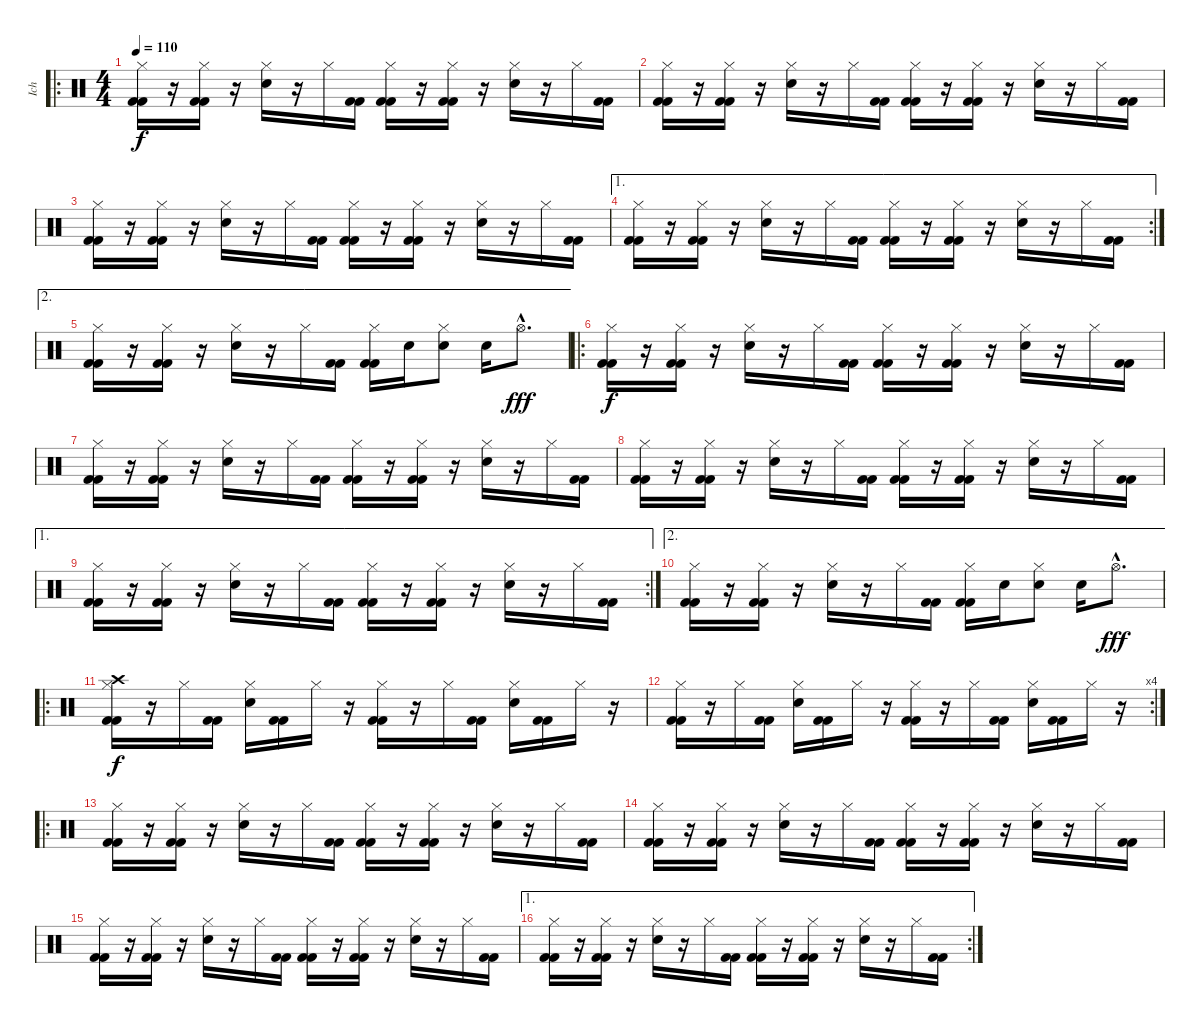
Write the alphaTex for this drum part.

\track ("Ich" "Ich") {instrument percussion}
\staff {score}
\articulation defaults
\ro
\ts (4 4)
\tempo 110
\clef neutral
\ks c
("Hi-Hat (closed)" "Kick (hit) 2" "Kick (hit) 2").16{dy f} r.16 ("Hi-Hat (closed)" "Kick (hit) 2" "Kick (hit) 2").16 r.16 ("Hi-Hat (closed)" "Snare (hit) 2").16 r.16 "Hi-Hat (closed)".16 ("Kick (hit) 2" "Kick (hit) 2").16 ("Hi-Hat (closed)" "Kick (hit) 2" "Kick (hit) 2").16 r.16 ("Hi-Hat (closed)" "Kick (hit) 2" "Kick (hit) 2").16 r.16 ("Hi-Hat (closed)" "Snare (hit) 2").16 r.16 "Hi-Hat (closed)".16 ("Kick (hit) 2" "Kick (hit) 2").16 |
("Hi-Hat (closed)" "Kick (hit) 2" "Kick (hit) 2").16 r.16 ("Hi-Hat (closed)" "Kick (hit) 2" "Kick (hit) 2").16 r.16 ("Hi-Hat (closed)" "Snare (hit) 2").16 r.16 "Hi-Hat (closed)".16 ("Kick (hit) 2" "Kick (hit) 2").16 ("Hi-Hat (closed)" "Kick (hit) 2" "Kick (hit) 2").16 r.16 ("Hi-Hat (closed)" "Kick (hit) 2" "Kick (hit) 2").16 r.16 ("Hi-Hat (closed)" "Snare (hit) 2").16 r.16 "Hi-Hat (closed)".16 ("Kick (hit) 2" "Kick (hit) 2").16 |
("Hi-Hat (closed)" "Kick (hit) 2" "Kick (hit) 2").16 r.16 ("Hi-Hat (closed)" "Kick (hit) 2" "Kick (hit) 2").16 r.16 ("Hi-Hat (closed)" "Snare (hit) 2").16 r.16 "Hi-Hat (closed)".16 ("Kick (hit) 2" "Kick (hit) 2").16 ("Hi-Hat (closed)" "Kick (hit) 2" "Kick (hit) 2").16 r.16 ("Hi-Hat (closed)" "Kick (hit) 2" "Kick (hit) 2").16 r.16 ("Hi-Hat (closed)" "Snare (hit) 2").16 r.16 "Hi-Hat (closed)".16 ("Kick (hit) 2" "Kick (hit) 2").16 |
\ae 1
\rc 2
("Hi-Hat (closed)" "Kick (hit) 2" "Kick (hit) 2").16 r.16 ("Hi-Hat (closed)" "Kick (hit) 2" "Kick (hit) 2").16 r.16 ("Hi-Hat (closed)" "Snare (hit) 2").16 r.16 "Hi-Hat (closed)".16 ("Kick (hit) 2" "Kick (hit) 2").16 ("Hi-Hat (closed)" "Kick (hit) 2" "Kick (hit) 2").16 r.16 ("Hi-Hat (closed)" "Kick (hit) 2" "Kick (hit) 2").16 r.16 ("Hi-Hat (closed)" "Snare (hit) 2").16 r.16 "Hi-Hat (closed)".16 ("Kick (hit) 2" "Kick (hit) 2").16 |
\ae 2
("Hi-Hat (closed)" "Kick (hit) 2" "Kick (hit) 2").16 r.16 ("Hi-Hat (closed)" "Kick (hit) 2" "Kick (hit) 2").16 r.16 ("Hi-Hat (closed)" "Snare (hit) 2").16 r.16 "Hi-Hat (closed)".16 ("Kick (hit) 2" "Kick (hit) 2").16 ("Hi-Hat (closed)" "Kick (hit) 2" "Kick (hit) 2").16 "Snare (hit) 2".16 ("Hi-Hat (closed)" "Snare (hit) 2").8 "Snare (hit) 2".16 "Hi-Hat (open)"{hac}.8{d dy fff} |
\ro
("Hi-Hat (closed)" "Kick (hit) 2" "Kick (hit) 2").16{dy f} r.16 ("Hi-Hat (closed)" "Kick (hit) 2" "Kick (hit) 2").16 r.16 ("Hi-Hat (closed)" "Snare (hit) 2").16 r.16 "Hi-Hat (closed)".16 ("Kick (hit) 2" "Kick (hit) 2").16 ("Hi-Hat (closed)" "Kick (hit) 2" "Kick (hit) 2").16 r.16 ("Hi-Hat (closed)" "Kick (hit) 2" "Kick (hit) 2").16 r.16 ("Hi-Hat (closed)" "Snare (hit) 2").16 r.16 "Hi-Hat (closed)".16 ("Kick (hit) 2" "Kick (hit) 2").16 |
("Hi-Hat (closed)" "Kick (hit) 2" "Kick (hit) 2").16 r.16 ("Hi-Hat (closed)" "Kick (hit) 2" "Kick (hit) 2").16 r.16 ("Hi-Hat (closed)" "Snare (hit) 2").16 r.16 "Hi-Hat (closed)".16 ("Kick (hit) 2" "Kick (hit) 2").16 ("Hi-Hat (closed)" "Kick (hit) 2" "Kick (hit) 2").16 r.16 ("Hi-Hat (closed)" "Kick (hit) 2" "Kick (hit) 2").16 r.16 ("Hi-Hat (closed)" "Snare (hit) 2").16 r.16 "Hi-Hat (closed)".16 ("Kick (hit) 2" "Kick (hit) 2").16 |
("Hi-Hat (closed)" "Kick (hit) 2" "Kick (hit) 2").16 r.16 ("Hi-Hat (closed)" "Kick (hit) 2" "Kick (hit) 2").16 r.16 ("Hi-Hat (closed)" "Snare (hit) 2").16 r.16 "Hi-Hat (closed)".16 ("Kick (hit) 2" "Kick (hit) 2").16 ("Hi-Hat (closed)" "Kick (hit) 2" "Kick (hit) 2").16 r.16 ("Hi-Hat (closed)" "Kick (hit) 2" "Kick (hit) 2").16 r.16 ("Hi-Hat (closed)" "Snare (hit) 2").16 r.16 "Hi-Hat (closed)".16 ("Kick (hit) 2" "Kick (hit) 2").16 |
\ae 1
\rc 2
("Hi-Hat (closed)" "Kick (hit) 2" "Kick (hit) 2").16 r.16 ("Hi-Hat (closed)" "Kick (hit) 2" "Kick (hit) 2").16 r.16 ("Hi-Hat (closed)" "Snare (hit) 2").16 r.16 "Hi-Hat (closed)".16 ("Kick (hit) 2" "Kick (hit) 2").16 ("Hi-Hat (closed)" "Kick (hit) 2" "Kick (hit) 2").16 r.16 ("Hi-Hat (closed)" "Kick (hit) 2" "Kick (hit) 2").16 r.16 ("Hi-Hat (closed)" "Snare (hit) 2").16 r.16 "Hi-Hat (closed)".16 ("Kick (hit) 2" "Kick (hit) 2").16 |
\ae 2
("Hi-Hat (closed)" "Kick (hit) 2" "Kick (hit) 2").16 r.16 ("Hi-Hat (closed)" "Kick (hit) 2" "Kick (hit) 2").16 r.16 ("Hi-Hat (closed)" "Snare (hit) 2").16 r.16 "Hi-Hat (closed)".16 ("Kick (hit) 2" "Kick (hit) 2").16 ("Hi-Hat (closed)" "Kick (hit) 2" "Kick (hit) 2").16 "Snare (hit) 2".16 ("Hi-Hat (closed)" "Snare (hit) 2").8 "Snare (hit) 2".16 "Hi-Hat (open)"{hac}.8{d dy fff} |
\ro
("Hi-Hat (closed)" "Crash high (hit)" "Kick (hit) 2" "Kick (hit) 2").16{dy f} r.16 "Hi-Hat (closed)".16 ("Kick (hit) 2" "Kick (hit) 2").16 ("Hi-Hat (closed)" "Snare (hit) 2").16 ("Kick (hit) 2" "Kick (hit) 2").16 "Hi-Hat (closed)".16 r.16 ("Hi-Hat (closed)" "Kick (hit) 2" "Kick (hit) 2").16 r.16 "Hi-Hat (closed)".16 ("Kick (hit) 2" "Kick (hit) 2").16 ("Hi-Hat (closed)" "Snare (hit) 2").16 ("Kick (hit) 2" "Kick (hit) 2").16 "Hi-Hat (closed)".16 r.16 |
\rc 4
("Hi-Hat (closed)" "Kick (hit) 2" "Kick (hit) 2").16 r.16 "Hi-Hat (closed)".16 ("Kick (hit) 2" "Kick (hit) 2").16 ("Hi-Hat (closed)" "Snare (hit) 2").16 ("Kick (hit) 2" "Kick (hit) 2").16 "Hi-Hat (closed)".16 r.16 ("Hi-Hat (closed)" "Kick (hit) 2" "Kick (hit) 2").16 r.16 "Hi-Hat (closed)".16 ("Kick (hit) 2" "Kick (hit) 2").16 ("Hi-Hat (closed)" "Snare (hit) 2").16 ("Kick (hit) 2" "Kick (hit) 2").16 "Hi-Hat (closed)".16 r.16 |
\ro
("Hi-Hat (closed)" "Kick (hit) 2" "Kick (hit) 2").16 r.16 ("Hi-Hat (closed)" "Kick (hit) 2" "Kick (hit) 2").16 r.16 ("Hi-Hat (closed)" "Snare (hit) 2").16 r.16 "Hi-Hat (closed)".16 ("Kick (hit) 2" "Kick (hit) 2").16 ("Hi-Hat (closed)" "Kick (hit) 2" "Kick (hit) 2").16 r.16 ("Hi-Hat (closed)" "Kick (hit) 2" "Kick (hit) 2").16 r.16 ("Hi-Hat (closed)" "Snare (hit) 2").16 r.16 "Hi-Hat (closed)".16 ("Kick (hit) 2" "Kick (hit) 2").16 |
("Hi-Hat (closed)" "Kick (hit) 2" "Kick (hit) 2").16 r.16 ("Hi-Hat (closed)" "Kick (hit) 2" "Kick (hit) 2").16 r.16 ("Hi-Hat (closed)" "Snare (hit) 2").16 r.16 "Hi-Hat (closed)".16 ("Kick (hit) 2" "Kick (hit) 2").16 ("Hi-Hat (closed)" "Kick (hit) 2" "Kick (hit) 2").16 r.16 ("Hi-Hat (closed)" "Kick (hit) 2" "Kick (hit) 2").16 r.16 ("Hi-Hat (closed)" "Snare (hit) 2").16 r.16 "Hi-Hat (closed)".16 ("Kick (hit) 2" "Kick (hit) 2").16 |
("Hi-Hat (closed)" "Kick (hit) 2" "Kick (hit) 2").16 r.16 ("Hi-Hat (closed)" "Kick (hit) 2" "Kick (hit) 2").16 r.16 ("Hi-Hat (closed)" "Snare (hit) 2").16 r.16 "Hi-Hat (closed)".16 ("Kick (hit) 2" "Kick (hit) 2").16 ("Hi-Hat (closed)" "Kick (hit) 2" "Kick (hit) 2").16 r.16 ("Hi-Hat (closed)" "Kick (hit) 2" "Kick (hit) 2").16 r.16 ("Hi-Hat (closed)" "Snare (hit) 2").16 r.16 "Hi-Hat (closed)".16 ("Kick (hit) 2" "Kick (hit) 2").16 |
\ae 1
\rc 2
("Hi-Hat (closed)" "Kick (hit) 2" "Kick (hit) 2").16 r.16 ("Hi-Hat (closed)" "Kick (hit) 2" "Kick (hit) 2").16 r.16 ("Hi-Hat (closed)" "Snare (hit) 2").16 r.16 "Hi-Hat (closed)".16 ("Kick (hit) 2" "Kick (hit) 2").16 ("Hi-Hat (closed)" "Kick (hit) 2" "Kick (hit) 2").16 r.16 ("Hi-Hat (closed)" "Kick (hit) 2" "Kick (hit) 2").16 r.16 ("Hi-Hat (closed)" "Snare (hit) 2").16 r.16 "Hi-Hat (closed)".16 ("Kick (hit) 2" "Kick (hit) 2").16
